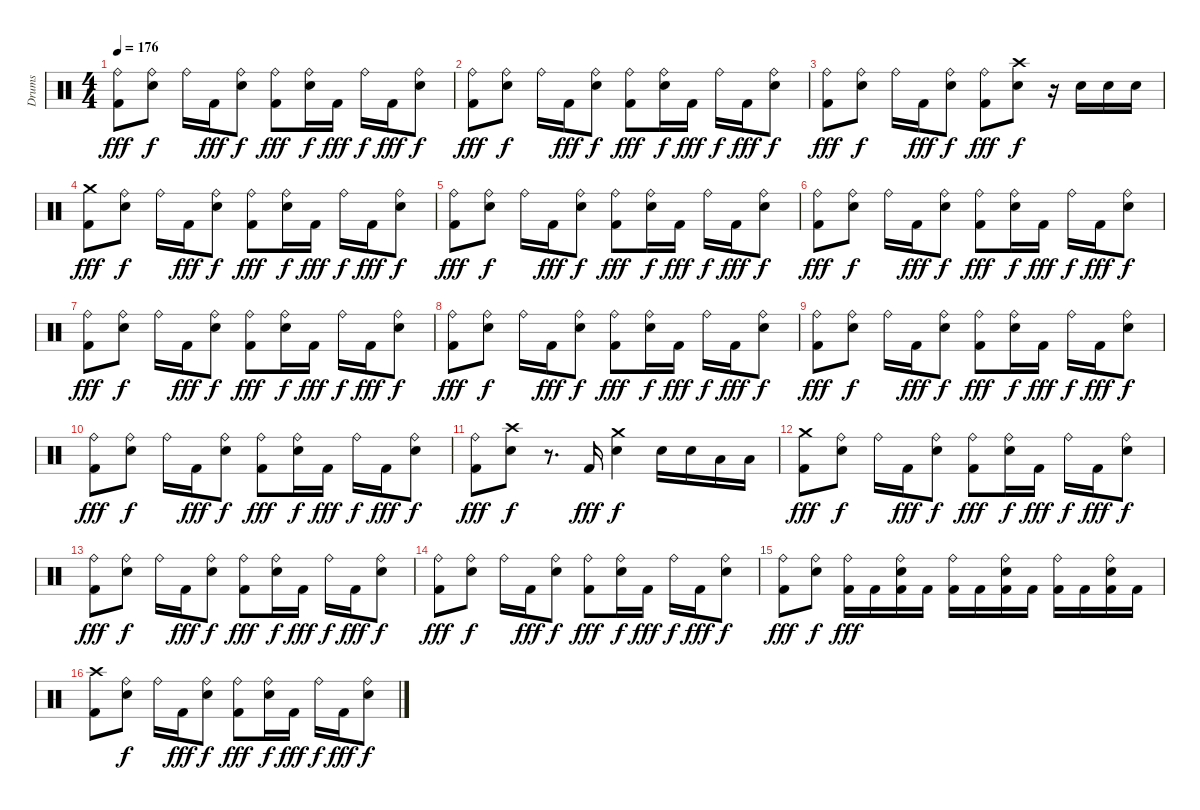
\track ("Drums" "Drums") {instrument percussion}
\staff {score}
\articulation defaults
\ts (4 4)
\tempo 176
\clef neutral
\ks c
("Ride (bell)" "Kick (hit) 2").8{dy fff} ("Ride (bell)" "Snare (hit) 2").8{dy f} "Ride (bell)".16 "Kick (hit) 2".16{dy fff} ("Ride (bell)" "Snare (hit) 2").8{dy f} ("Ride (bell)" "Kick (hit) 2").8{dy fff} ("Ride (bell)" "Snare (hit) 2").16{dy f} "Kick (hit) 2".16{dy fff} "Ride (bell)".16{dy f} "Kick (hit) 2".16{dy fff} ("Ride (bell)" "Snare (hit) 2").8{dy f} |
("Ride (bell)" "Kick (hit) 2").8{dy fff} ("Ride (bell)" "Snare (hit) 2").8{dy f} "Ride (bell)".16 "Kick (hit) 2".16{dy fff} ("Ride (bell)" "Snare (hit) 2").8{dy f} ("Ride (bell)" "Kick (hit) 2").8{dy fff} ("Ride (bell)" "Snare (hit) 2").16{dy f} "Kick (hit) 2".16{dy fff} "Ride (bell)".16{dy f} "Kick (hit) 2".16{dy fff} ("Ride (bell)" "Snare (hit) 2").8{dy f} |
("Ride (bell)" "Kick (hit) 2").8{dy fff} ("Ride (bell)" "Snare (hit) 2").8{dy f} "Ride (bell)".16 "Kick (hit) 2".16{dy fff} ("Ride (bell)" "Snare (hit) 2").8{dy f} ("Ride (bell)" "Kick (hit) 2").8{dy fff} ("Crash high (hit)" "Snare (hit) 2").8{dy f} r.16 "Snare (hit) 2".16 "Snare (hit) 2".16 "Snare (hit) 2".16 |
("Crash medium (hit)" "Kick (hit) 2").8{dy fff} ("Ride (bell)" "Snare (hit) 2").8{dy f} "Ride (bell)".16 "Kick (hit) 2".16{dy fff} ("Ride (bell)" "Snare (hit) 2").8{dy f} ("Ride (bell)" "Kick (hit) 2").8{dy fff} ("Ride (bell)" "Snare (hit) 2").16{dy f} "Kick (hit) 2".16{dy fff} "Ride (bell)".16{dy f} "Kick (hit) 2".16{dy fff} ("Ride (bell)" "Snare (hit) 2").8{dy f} |
("Ride (bell)" "Kick (hit) 2").8{dy fff} ("Ride (bell)" "Snare (hit) 2").8{dy f} "Ride (bell)".16 "Kick (hit) 2".16{dy fff} ("Ride (bell)" "Snare (hit) 2").8{dy f} ("Ride (bell)" "Kick (hit) 2").8{dy fff} ("Ride (bell)" "Snare (hit) 2").16{dy f} "Kick (hit) 2".16{dy fff} "Ride (bell)".16{dy f} "Kick (hit) 2".16{dy fff} ("Ride (bell)" "Snare (hit) 2").8{dy f} |
("Ride (bell)" "Kick (hit) 2").8{dy fff} ("Ride (bell)" "Snare (hit) 2").8{dy f} "Ride (bell)".16 "Kick (hit) 2".16{dy fff} ("Ride (bell)" "Snare (hit) 2").8{dy f} ("Ride (bell)" "Kick (hit) 2").8{dy fff} ("Ride (bell)" "Snare (hit) 2").16{dy f} "Kick (hit) 2".16{dy fff} "Ride (bell)".16{dy f} "Kick (hit) 2".16{dy fff} ("Ride (bell)" "Snare (hit) 2").8{dy f} |
("Ride (bell)" "Kick (hit) 2").8{dy fff} ("Ride (bell)" "Snare (hit) 2").8{dy f} "Ride (bell)".16 "Kick (hit) 2".16{dy fff} ("Ride (bell)" "Snare (hit) 2").8{dy f} ("Ride (bell)" "Kick (hit) 2").8{dy fff} ("Ride (bell)" "Snare (hit) 2").16{dy f} "Kick (hit) 2".16{dy fff} "Ride (bell)".16{dy f} "Kick (hit) 2".16{dy fff} ("Ride (bell)" "Snare (hit) 2").8{dy f} |
("Ride (bell)" "Kick (hit) 2").8{dy fff} ("Ride (bell)" "Snare (hit) 2").8{dy f} "Ride (bell)".16 "Kick (hit) 2".16{dy fff} ("Ride (bell)" "Snare (hit) 2").8{dy f} ("Ride (bell)" "Kick (hit) 2").8{dy fff} ("Ride (bell)" "Snare (hit) 2").16{dy f} "Kick (hit) 2".16{dy fff} "Ride (bell)".16{dy f} "Kick (hit) 2".16{dy fff} ("Ride (bell)" "Snare (hit) 2").8{dy f} |
("Ride (bell)" "Kick (hit) 2").8{dy fff} ("Ride (bell)" "Snare (hit) 2").8{dy f} "Ride (bell)".16 "Kick (hit) 2".16{dy fff} ("Ride (bell)" "Snare (hit) 2").8{dy f} ("Ride (bell)" "Kick (hit) 2").8{dy fff} ("Ride (bell)" "Snare (hit) 2").16{dy f} "Kick (hit) 2".16{dy fff} "Ride (bell)".16{dy f} "Kick (hit) 2".16{dy fff} ("Ride (bell)" "Snare (hit) 2").8{dy f} |
("Ride (bell)" "Kick (hit) 2").8{dy fff} ("Ride (bell)" "Snare (hit) 2").8{dy f} "Ride (bell)".16 "Kick (hit) 2".16{dy fff} ("Ride (bell)" "Snare (hit) 2").8{dy f} ("Ride (bell)" "Kick (hit) 2").8{dy fff} ("Ride (bell)" "Snare (hit) 2").16{dy f} "Kick (hit) 2".16{dy fff} "Ride (bell)".16{dy f} "Kick (hit) 2".16{dy fff} ("Ride (bell)" "Snare (hit) 2").8{dy f} |
("Ride (bell)" "Kick (hit) 2").8{dy fff} ("Crash high (hit)" "Snare (hit) 2").8{dy f} r.8{d} "Kick (hit) 2".16{dy fff} ("Crash medium (hit)" "Snare (hit) 2").4{dy f} "Snare (hit) 2".16 "Snare (hit) 2".16 "Low Tom (hit)".16 "Low Tom (hit)".16 |
("Crash medium (hit)" "Kick (hit) 2").8{dy fff} ("Ride (bell)" "Snare (hit) 2").8{dy f} "Ride (bell)".16 "Kick (hit) 2".16{dy fff} ("Ride (bell)" "Snare (hit) 2").8{dy f} ("Ride (bell)" "Kick (hit) 2").8{dy fff} ("Ride (bell)" "Snare (hit) 2").16{dy f} "Kick (hit) 2".16{dy fff} "Ride (bell)".16{dy f} "Kick (hit) 2".16{dy fff} ("Ride (bell)" "Snare (hit) 2").8{dy f} |
("Ride (bell)" "Kick (hit) 2").8{dy fff} ("Ride (bell)" "Snare (hit) 2").8{dy f} "Ride (bell)".16 "Kick (hit) 2".16{dy fff} ("Ride (bell)" "Snare (hit) 2").8{dy f} ("Ride (bell)" "Kick (hit) 2").8{dy fff} ("Ride (bell)" "Snare (hit) 2").16{dy f} "Kick (hit) 2".16{dy fff} "Ride (bell)".16{dy f} "Kick (hit) 2".16{dy fff} ("Ride (bell)" "Snare (hit) 2").8{dy f} |
("Ride (bell)" "Kick (hit) 2").8{dy fff} ("Ride (bell)" "Snare (hit) 2").8{dy f} "Ride (bell)".16 "Kick (hit) 2".16{dy fff} ("Ride (bell)" "Snare (hit) 2").8{dy f} ("Ride (bell)" "Kick (hit) 2").8{dy fff} ("Ride (bell)" "Snare (hit) 2").16{dy f} "Kick (hit) 2".16{dy fff} "Ride (bell)".16{dy f} "Kick (hit) 2".16{dy fff} ("Ride (bell)" "Snare (hit) 2").8{dy f} |
("Ride (bell)" "Kick (hit) 2").8{dy fff} ("Ride (bell)" "Snare (hit) 2").8{dy f} ("Ride (bell)" "Kick (hit) 2").16{dy fff} "Kick (hit) 2".16 ("Ride (bell)" "Snare (hit) 2" "Kick (hit) 2").16 "Kick (hit) 2".16 ("Ride (bell)" "Kick (hit) 2").16 "Kick (hit) 2".16 ("Ride (bell)" "Snare (hit) 2" "Kick (hit) 2").16 "Kick (hit) 2".16 ("Ride (bell)" "Kick (hit) 2").16 "Kick (hit) 2".16 ("Ride (bell)" "Snare (hit) 2" "Kick (hit) 2").16 "Kick (hit) 2".16 |
("Crash high (hit)" "Kick (hit) 2").8 ("Ride (bell)" "Snare (hit) 2").8{dy f} "Ride (bell)".16 "Kick (hit) 2".16{dy fff} ("Ride (bell)" "Snare (hit) 2").8{dy f} ("Ride (bell)" "Kick (hit) 2").8{dy fff} ("Ride (bell)" "Snare (hit) 2").16{dy f} "Kick (hit) 2".16{dy fff} "Ride (bell)".16{dy f} "Kick (hit) 2".16{dy fff} ("Ride (bell)" "Snare (hit) 2").8{dy f}
